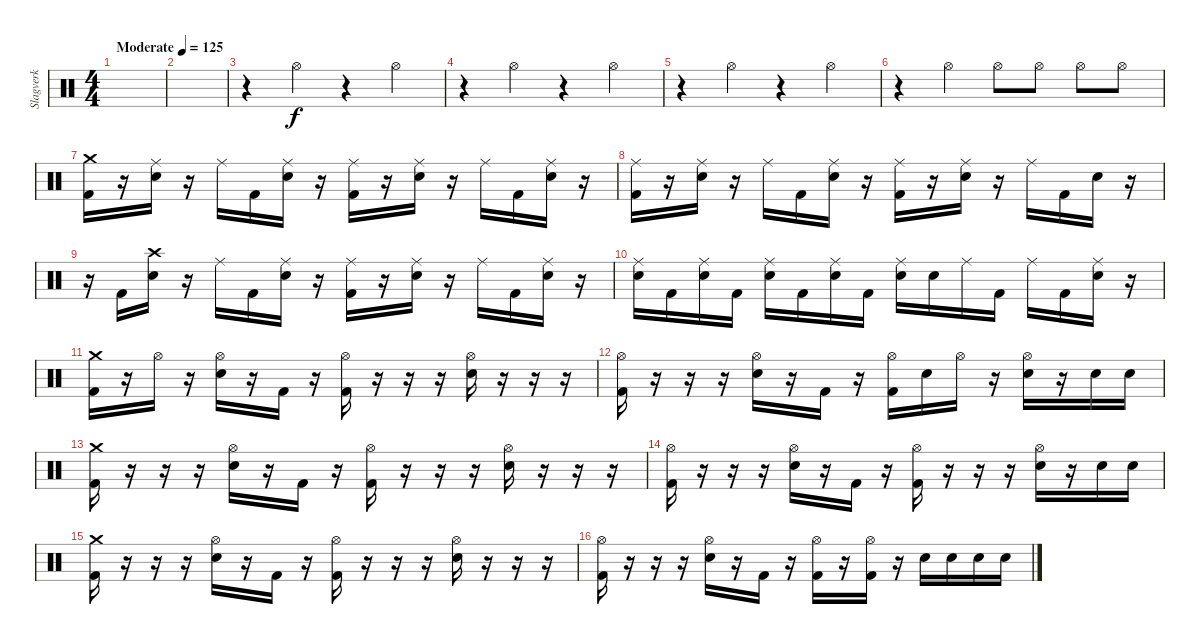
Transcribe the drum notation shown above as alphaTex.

\track ("Slagverk" "Slagverk") {instrument percussion}
\staff {score}
\articulation defaults
\ts (4 4)
\tempo (125 "Moderate")
\clef neutral
\ks c
|
|
r.4 "Hi-Hat (open)".4 r.4 "Hi-Hat (open)".4 |
r.4 "Hi-Hat (open)".4 r.4 "Hi-Hat (open)".4 |
r.4 "Hi-Hat (open)".4 r.4 "Hi-Hat (open)".4 |
r.4 "Hi-Hat (open)".4 "Hi-Hat (open)".8 "Hi-Hat (open)".8 "Hi-Hat (open)".8 "Hi-Hat (open)".8 |
("Crash medium (hit)" "Kick (hit) 2").16 r.16 ("Ride (middle)" "Electric Snare (hit)").16 r.16 "Ride (middle)".16 "Kick (hit) 2".16 ("Ride (middle)" "Electric Snare (hit)").16 r.16 ("Ride (middle)" "Kick (hit) 2").16 r.16 ("Ride (middle)" "Electric Snare (hit)").16 r.16 "Ride (middle)".16 "Kick (hit) 2".16 ("Ride (middle)" "Electric Snare (hit)").16 r.16 |
("Ride (middle)" "Kick (hit) 2").16 r.16 ("Ride (middle)" "Electric Snare (hit)").16 r.16 "Ride (middle)".16 "Kick (hit) 2".16 ("Ride (middle)" "Electric Snare (hit)").16 r.16 ("Ride (middle)" "Kick (hit) 2").16 r.16 ("Ride (middle)" "Electric Snare (hit)").16 r.16 "Ride (middle)".16 "Kick (hit) 2".16 "Electric Snare (hit)".16 r.16 |
r.16 "Kick (hit) 2".16 ("Crash high (hit)" "Electric Snare (hit)").16 r.16 "Ride (middle)".16 "Kick (hit) 2".16 ("Ride (middle)" "Electric Snare (hit)").16 r.16 ("Ride (middle)" "Kick (hit) 2").16 r.16 ("Ride (middle)" "Electric Snare (hit)").16 r.16 "Ride (middle)".16 "Kick (hit) 2".16 ("Ride (middle)" "Electric Snare (hit)").16 r.16 |
("Ride (middle)" "Electric Snare (hit)").16 "Kick (hit) 2".16 ("Ride (middle)" "Electric Snare (hit)").16 "Kick (hit) 2".16 ("Ride (middle)" "Electric Snare (hit)").16 "Kick (hit) 2".16 ("Ride (middle)" "Electric Snare (hit)").16 "Kick (hit) 2".16 ("Ride (middle)" "Electric Snare (hit)").16 "Electric Snare (hit)".16 "Ride (middle)".16 "Kick (hit) 2".16 "Ride (middle)".16 "Kick (hit) 2".16 ("Ride (middle)" "Electric Snare (hit)").16 r.16 |
("Crash medium (hit)" "Kick (hit) 2").16 r.16 "Hi-Hat (open)".16 r.16 ("Hi-Hat (open)" "Electric Snare (hit)").16 r.16 "Kick (hit) 2".16 r.16 ("Hi-Hat (open)" "Kick (hit) 2").16 r.16 r.16 r.16 ("Hi-Hat (open)" "Electric Snare (hit)").16 r.16 r.16 r.16 |
("Hi-Hat (open)" "Kick (hit) 2").16 r.16 r.16 r.16 ("Hi-Hat (open)" "Electric Snare (hit)").16 r.16 "Kick (hit) 2".16 r.16 ("Hi-Hat (open)" "Kick (hit) 2").16 "Electric Snare (hit)".16 "Hi-Hat (open)".16 r.16 ("Hi-Hat (open)" "Electric Snare (hit)").16 r.16 "Electric Snare (hit)".16 "Electric Snare (hit)".16 |
("Crash medium (hit)" "Kick (hit) 2").16 r.16 r.16 r.16 ("Hi-Hat (open)" "Electric Snare (hit)").16 r.16 "Kick (hit) 2".16 r.16 ("Hi-Hat (open)" "Kick (hit) 2").16 r.16 r.16 r.16 ("Hi-Hat (open)" "Electric Snare (hit)").16 r.16 r.16 r.16 |
("Hi-Hat (open)" "Kick (hit) 2").16 r.16 r.16 r.16 ("Hi-Hat (open)" "Electric Snare (hit)").16 r.16 "Kick (hit) 2".16 r.16 ("Hi-Hat (open)" "Kick (hit) 2").16 r.16 r.16 r.16 ("Hi-Hat (open)" "Electric Snare (hit)").16 r.16 "Electric Snare (hit)".16 "Electric Snare (hit)".16 |
("Crash medium (hit)" "Kick (hit) 2").16 r.16 r.16 r.16 ("Hi-Hat (open)" "Electric Snare (hit)").16 r.16 "Kick (hit) 2".16 r.16 ("Hi-Hat (open)" "Kick (hit) 2").16 r.16 r.16 r.16 ("Hi-Hat (open)" "Electric Snare (hit)").16 r.16 r.16 r.16 |
("Hi-Hat (open)" "Kick (hit) 2").16 r.16 r.16 r.16 ("Hi-Hat (open)" "Electric Snare (hit)").16 r.16 "Kick (hit) 2".16 r.16 ("Hi-Hat (open)" "Kick (hit) 2").16 r.16 ("Hi-Hat (open)" "Kick (hit) 2").16 r.16 "Electric Snare (hit)".16 "Electric Snare (hit)".16 "Electric Snare (hit)".16 "Electric Snare (hit)".16
